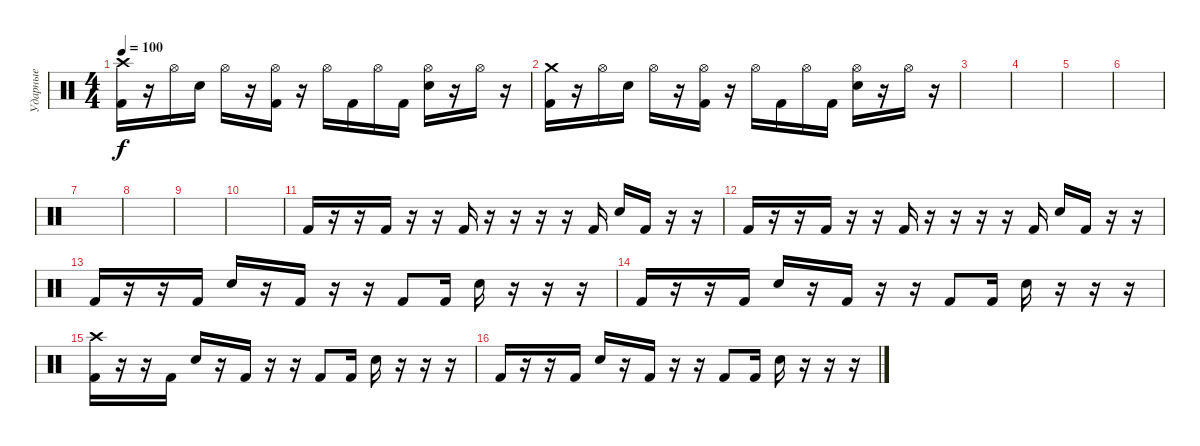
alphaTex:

\track ("Ударные" "Ударные") {instrument percussion}
\staff {score}
\articulation defaults
\ts (4 4)
\tempo 100
\clef neutral
\ks c
("Kick (hit) 2" "Crash high (hit)").16{dy f} r.16 "Hi-Hat (open)".16 "Electric Snare (hit)".16 "Hi-Hat (open)".16 r.16 ("Kick (hit) 2" "Hi-Hat (open)").16 r.16 "Hi-Hat (open)".16 "Kick (hit) 2".16 "Hi-Hat (open)".16 "Kick (hit) 2".16 ("Electric Snare (hit)" "Hi-Hat (open)").16 r.16 "Hi-Hat (open)".16 r.16 |
("Kick (hit) 2" "Crash medium (hit)").16 r.16 "Hi-Hat (open)".16 "Electric Snare (hit)".16 "Hi-Hat (open)".16 r.16 ("Kick (hit) 2" "Hi-Hat (open)").16 r.16 "Hi-Hat (open)".16 "Kick (hit) 2".16 "Hi-Hat (open)".16 "Kick (hit) 2".16 ("Electric Snare (hit)" "Hi-Hat (open)").16 r.16 "Hi-Hat (open)".16 r.16 |
|
|
|
|
|
|
|
|
"Kick (hit) 2".16 r.16 r.16 "Kick (hit) 2".16 r.16 r.16 "Kick (hit) 2".16 r.16 r.16 r.16 r.16 "Kick (hit) 2".16 "Electric Snare (hit)".16 "Kick (hit) 2".16 r.16 r.16 |
"Kick (hit) 2".16 r.16 r.16 "Kick (hit) 2".16 r.16 r.16 "Kick (hit) 2".16 r.16 r.16 r.16 r.16 "Kick (hit) 2".16 "Electric Snare (hit)".16 "Kick (hit) 2".16 r.16 r.16 |
"Kick (hit) 2".16 r.16 r.16 "Kick (hit) 2".16 "Electric Snare (hit)".16 r.16 "Kick (hit) 2".16 r.16 r.16 "Kick (hit) 2".8 "Kick (hit) 2".16 "Electric Snare (hit)".16 r.16 r.16 r.16 |
"Kick (hit) 2".16 r.16 r.16 "Kick (hit) 2".16 "Electric Snare (hit)".16 r.16 "Kick (hit) 2".16 r.16 r.16 "Kick (hit) 2".8 "Kick (hit) 2".16 "Electric Snare (hit)".16 r.16 r.16 r.16 |
("Kick (hit) 2" "Crash high (hit)").16 r.16 r.16 "Kick (hit) 2".16 "Electric Snare (hit)".16 r.16 "Kick (hit) 2".16 r.16 r.16 "Kick (hit) 2".8 "Kick (hit) 2".16 "Electric Snare (hit)".16 r.16 r.16 r.16 |
"Kick (hit) 2".16 r.16 r.16 "Kick (hit) 2".16 "Electric Snare (hit)".16 r.16 "Kick (hit) 2".16 r.16 r.16 "Kick (hit) 2".8 "Kick (hit) 2".16 "Electric Snare (hit)".16 r.16 r.16 r.16
